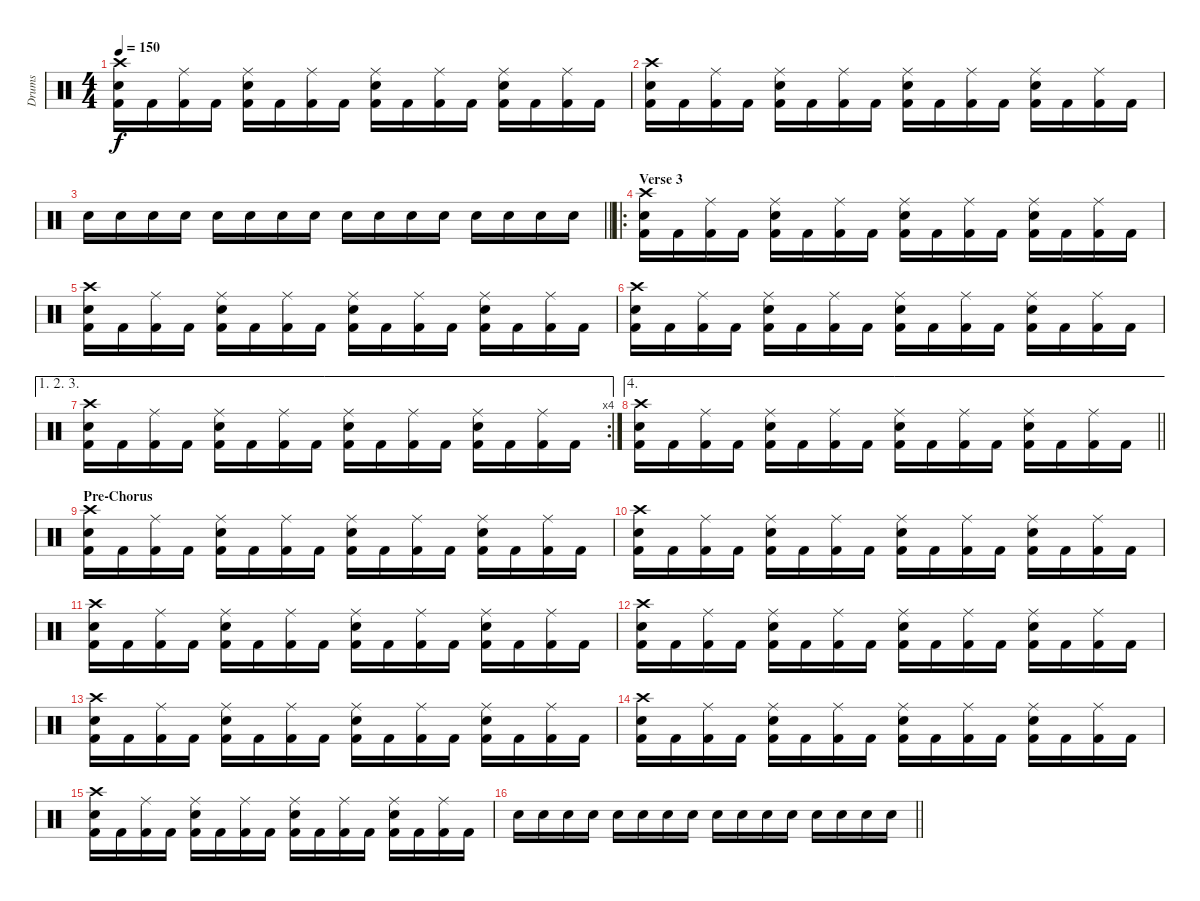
\track ("Drums" "Drums") {instrument percussion}
\staff {score}
\articulation defaults
\ts (4 4)
\tempo 150
\clef neutral
\ks c
("Kick (hit) 2" "Snare (hit) 2" "Crash high (hit)").16{dy f} "Kick (hit) 2".16 ("Kick (hit) 2" "Ride (middle)").16 "Kick (hit) 2".16 ("Kick (hit) 2" "Snare (hit) 2" "Ride (middle)").16 "Kick (hit) 2".16 ("Kick (hit) 2" "Ride (middle)").16 "Kick (hit) 2".16 ("Kick (hit) 2" "Snare (hit) 2" "Ride (middle)").16 "Kick (hit) 2".16 ("Kick (hit) 2" "Ride (middle)").16 "Kick (hit) 2".16 ("Kick (hit) 2" "Snare (hit) 2" "Ride (middle)").16 "Kick (hit) 2".16 ("Kick (hit) 2" "Ride (middle)").16 "Kick (hit) 2".16 |
("Kick (hit) 2" "Snare (hit) 2" "Crash high (hit)").16 "Kick (hit) 2".16 ("Kick (hit) 2" "Ride (middle)").16 "Kick (hit) 2".16 ("Kick (hit) 2" "Snare (hit) 2" "Ride (middle)").16 "Kick (hit) 2".16 ("Kick (hit) 2" "Ride (middle)").16 "Kick (hit) 2".16 ("Kick (hit) 2" "Snare (hit) 2" "Ride (middle)").16 "Kick (hit) 2".16 ("Kick (hit) 2" "Ride (middle)").16 "Kick (hit) 2".16 ("Kick (hit) 2" "Snare (hit) 2" "Ride (middle)").16 "Kick (hit) 2".16 ("Kick (hit) 2" "Ride (middle)").16 "Kick (hit) 2".16 |
\barLineRight lightlight "Snare (hit) 2".16 "Snare (hit) 2".16 "Snare (hit) 2".16 "Snare (hit) 2".16 "Snare (hit) 2".16 "Snare (hit) 2".16 "Snare (hit) 2".16 "Snare (hit) 2".16 "Snare (hit) 2".16 "Snare (hit) 2".16 "Snare (hit) 2".16 "Snare (hit) 2".16 "Snare (hit) 2".16 "Snare (hit) 2".16 "Snare (hit) 2".16 "Snare (hit) 2".16
|
\ro
\section ("" "Verse 3")
("Kick (hit) 2" "Snare (hit) 2" "Crash high (hit)").16 "Kick (hit) 2".16 ("Kick (hit) 2" "Ride (middle)").16 "Kick (hit) 2".16 ("Kick (hit) 2" "Snare (hit) 2" "Ride (middle)").16 "Kick (hit) 2".16 ("Kick (hit) 2" "Ride (middle)").16 "Kick (hit) 2".16 ("Kick (hit) 2" "Snare (hit) 2" "Ride (middle)").16 "Kick (hit) 2".16 ("Kick (hit) 2" "Ride (middle)").16 "Kick (hit) 2".16 ("Kick (hit) 2" "Snare (hit) 2" "Ride (middle)").16 "Kick (hit) 2".16 ("Kick (hit) 2" "Ride (middle)").16 "Kick (hit) 2".16 |
("Kick (hit) 2" "Snare (hit) 2" "Crash high (hit)").16 "Kick (hit) 2".16 ("Kick (hit) 2" "Ride (middle)").16 "Kick (hit) 2".16 ("Kick (hit) 2" "Snare (hit) 2" "Ride (middle)").16 "Kick (hit) 2".16 ("Kick (hit) 2" "Ride (middle)").16 "Kick (hit) 2".16 ("Kick (hit) 2" "Snare (hit) 2" "Ride (middle)").16 "Kick (hit) 2".16 ("Kick (hit) 2" "Ride (middle)").16 "Kick (hit) 2".16 ("Kick (hit) 2" "Snare (hit) 2" "Ride (middle)").16 "Kick (hit) 2".16 ("Kick (hit) 2" "Ride (middle)").16 "Kick (hit) 2".16 |
("Kick (hit) 2" "Snare (hit) 2" "Crash high (hit)").16 "Kick (hit) 2".16 ("Kick (hit) 2" "Ride (middle)").16 "Kick (hit) 2".16 ("Kick (hit) 2" "Snare (hit) 2" "Ride (middle)").16 "Kick (hit) 2".16 ("Kick (hit) 2" "Ride (middle)").16 "Kick (hit) 2".16 ("Kick (hit) 2" "Snare (hit) 2" "Ride (middle)").16 "Kick (hit) 2".16 ("Kick (hit) 2" "Ride (middle)").16 "Kick (hit) 2".16 ("Kick (hit) 2" "Snare (hit) 2" "Ride (middle)").16 "Kick (hit) 2".16 ("Kick (hit) 2" "Ride (middle)").16 "Kick (hit) 2".16 |
\ae (1 2 3)
\rc 4
("Kick (hit) 2" "Snare (hit) 2" "Crash high (hit)").16 "Kick (hit) 2".16 ("Kick (hit) 2" "Ride (middle)").16 "Kick (hit) 2".16 ("Kick (hit) 2" "Snare (hit) 2" "Ride (middle)").16 "Kick (hit) 2".16 ("Kick (hit) 2" "Ride (middle)").16 "Kick (hit) 2".16 ("Kick (hit) 2" "Snare (hit) 2" "Ride (middle)").16 "Kick (hit) 2".16 ("Kick (hit) 2" "Ride (middle)").16 "Kick (hit) 2".16 ("Kick (hit) 2" "Snare (hit) 2" "Ride (middle)").16 "Kick (hit) 2".16 ("Kick (hit) 2" "Ride (middle)").16 "Kick (hit) 2".16 |
\ae 4
\barLineRight lightlight
("Kick (hit) 2" "Snare (hit) 2" "Crash high (hit)").16 "Kick (hit) 2".16 ("Kick (hit) 2" "Ride (middle)").16 "Kick (hit) 2".16 ("Kick (hit) 2" "Snare (hit) 2" "Ride (middle)").16 "Kick (hit) 2".16 ("Kick (hit) 2" "Ride (middle)").16 "Kick (hit) 2".16 ("Kick (hit) 2" "Snare (hit) 2" "Ride (middle)").16 "Kick (hit) 2".16 ("Kick (hit) 2" "Ride (middle)").16 "Kick (hit) 2".16 ("Kick (hit) 2" "Snare (hit) 2" "Ride (middle)").16 "Kick (hit) 2".16 ("Kick (hit) 2" "Ride (middle)").16 "Kick (hit) 2".16 |
\section ("" "Pre-Chorus")
("Kick (hit) 2" "Snare (hit) 2" "Crash high (hit)").16 "Kick (hit) 2".16 ("Kick (hit) 2" "Ride (middle)").16 "Kick (hit) 2".16 ("Kick (hit) 2" "Snare (hit) 2" "Ride (middle)").16 "Kick (hit) 2".16 ("Kick (hit) 2" "Ride (middle)").16 "Kick (hit) 2".16 ("Kick (hit) 2" "Snare (hit) 2" "Ride (middle)").16 "Kick (hit) 2".16 ("Kick (hit) 2" "Ride (middle)").16 "Kick (hit) 2".16 ("Kick (hit) 2" "Snare (hit) 2" "Ride (middle)").16 "Kick (hit) 2".16 ("Kick (hit) 2" "Ride (middle)").16 "Kick (hit) 2".16 |
("Kick (hit) 2" "Snare (hit) 2" "Crash high (hit)").16 "Kick (hit) 2".16 ("Kick (hit) 2" "Ride (middle)").16 "Kick (hit) 2".16 ("Kick (hit) 2" "Snare (hit) 2" "Ride (middle)").16 "Kick (hit) 2".16 ("Kick (hit) 2" "Ride (middle)").16 "Kick (hit) 2".16 ("Kick (hit) 2" "Snare (hit) 2" "Ride (middle)").16 "Kick (hit) 2".16 ("Kick (hit) 2" "Ride (middle)").16 "Kick (hit) 2".16 ("Kick (hit) 2" "Snare (hit) 2" "Ride (middle)").16 "Kick (hit) 2".16 ("Kick (hit) 2" "Ride (middle)").16 "Kick (hit) 2".16 |
("Kick (hit) 2" "Snare (hit) 2" "Crash high (hit)").16 "Kick (hit) 2".16 ("Kick (hit) 2" "Ride (middle)").16 "Kick (hit) 2".16 ("Kick (hit) 2" "Snare (hit) 2" "Ride (middle)").16 "Kick (hit) 2".16 ("Kick (hit) 2" "Ride (middle)").16 "Kick (hit) 2".16 ("Kick (hit) 2" "Snare (hit) 2" "Ride (middle)").16 "Kick (hit) 2".16 ("Kick (hit) 2" "Ride (middle)").16 "Kick (hit) 2".16 ("Kick (hit) 2" "Snare (hit) 2" "Ride (middle)").16 "Kick (hit) 2".16 ("Kick (hit) 2" "Ride (middle)").16 "Kick (hit) 2".16 |
("Kick (hit) 2" "Snare (hit) 2" "Crash high (hit)").16 "Kick (hit) 2".16 ("Kick (hit) 2" "Ride (middle)").16 "Kick (hit) 2".16 ("Kick (hit) 2" "Snare (hit) 2" "Ride (middle)").16 "Kick (hit) 2".16 ("Kick (hit) 2" "Ride (middle)").16 "Kick (hit) 2".16 ("Kick (hit) 2" "Snare (hit) 2" "Ride (middle)").16 "Kick (hit) 2".16 ("Kick (hit) 2" "Ride (middle)").16 "Kick (hit) 2".16 ("Kick (hit) 2" "Snare (hit) 2" "Ride (middle)").16 "Kick (hit) 2".16 ("Kick (hit) 2" "Ride (middle)").16 "Kick (hit) 2".16 |
("Kick (hit) 2" "Snare (hit) 2" "Crash high (hit)").16 "Kick (hit) 2".16 ("Kick (hit) 2" "Ride (middle)").16 "Kick (hit) 2".16 ("Kick (hit) 2" "Snare (hit) 2" "Ride (middle)").16 "Kick (hit) 2".16 ("Kick (hit) 2" "Ride (middle)").16 "Kick (hit) 2".16 ("Kick (hit) 2" "Snare (hit) 2" "Ride (middle)").16 "Kick (hit) 2".16 ("Kick (hit) 2" "Ride (middle)").16 "Kick (hit) 2".16 ("Kick (hit) 2" "Snare (hit) 2" "Ride (middle)").16 "Kick (hit) 2".16 ("Kick (hit) 2" "Ride (middle)").16 "Kick (hit) 2".16 |
("Kick (hit) 2" "Snare (hit) 2" "Crash high (hit)").16 "Kick (hit) 2".16 ("Kick (hit) 2" "Ride (middle)").16 "Kick (hit) 2".16 ("Kick (hit) 2" "Snare (hit) 2" "Ride (middle)").16 "Kick (hit) 2".16 ("Kick (hit) 2" "Ride (middle)").16 "Kick (hit) 2".16 ("Kick (hit) 2" "Snare (hit) 2" "Ride (middle)").16 "Kick (hit) 2".16 ("Kick (hit) 2" "Ride (middle)").16 "Kick (hit) 2".16 ("Kick (hit) 2" "Snare (hit) 2" "Ride (middle)").16 "Kick (hit) 2".16 ("Kick (hit) 2" "Ride (middle)").16 "Kick (hit) 2".16 |
("Kick (hit) 2" "Snare (hit) 2" "Crash high (hit)").16 "Kick (hit) 2".16 ("Kick (hit) 2" "Ride (middle)").16 "Kick (hit) 2".16 ("Kick (hit) 2" "Snare (hit) 2" "Ride (middle)").16 "Kick (hit) 2".16 ("Kick (hit) 2" "Ride (middle)").16 "Kick (hit) 2".16 ("Kick (hit) 2" "Snare (hit) 2" "Ride (middle)").16 "Kick (hit) 2".16 ("Kick (hit) 2" "Ride (middle)").16 "Kick (hit) 2".16 ("Kick (hit) 2" "Snare (hit) 2" "Ride (middle)").16 "Kick (hit) 2".16 ("Kick (hit) 2" "Ride (middle)").16 "Kick (hit) 2".16 |
\barLineRight lightlight "Snare (hit) 2".16 "Snare (hit) 2".16 "Snare (hit) 2".16 "Snare (hit) 2".16 "Snare (hit) 2".16 "Snare (hit) 2".16 "Snare (hit) 2".16 "Snare (hit) 2".16 "Snare (hit) 2".16 "Snare (hit) 2".16 "Snare (hit) 2".16 "Snare (hit) 2".16 "Snare (hit) 2".16 "Snare (hit) 2".16 "Snare (hit) 2".16 "Snare (hit) 2".16
